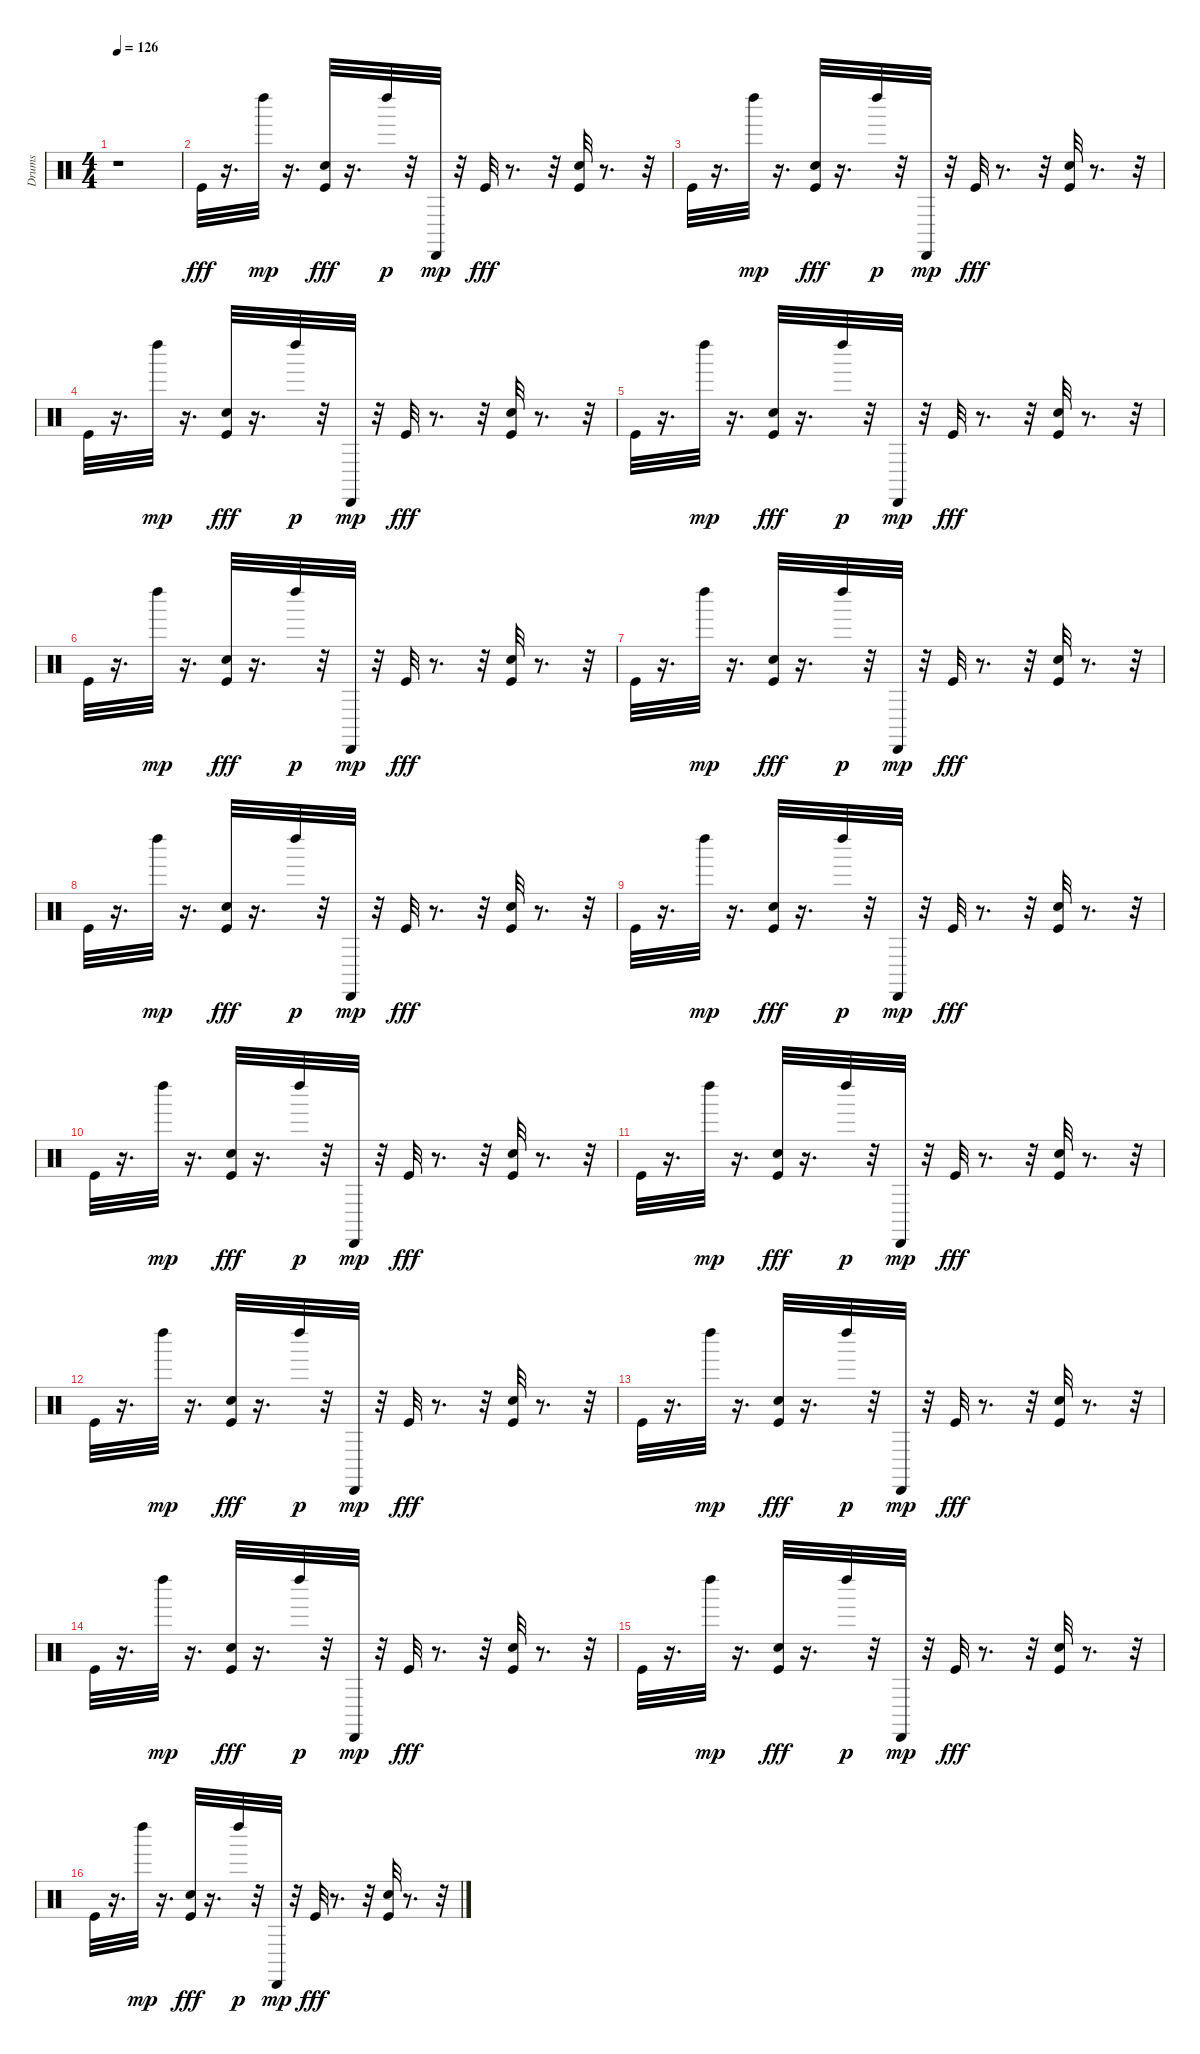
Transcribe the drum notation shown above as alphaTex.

\track ("Drums" "Drums") {instrument percussion}
\staff {score}
\articulation defaults
\ts (4 4)
\tempo 126
\clef neutral
\ks c
r.1{dy fff} |
"Kick (hit)".32 r.16{d} "Left Maraca (hit)".32{dy mp} r.16{d} ("Kick (hit)" "Hand Clap (hit)").32{dy fff} r.16{d} "Left Maraca (hit)".32{dy p} r.32 "Cabasa (hit)".32{dy mp} r.32 "Kick (hit)".32{dy fff} r.8{d} r.32 ("Kick (hit)" "Hand Clap (hit)").32 r.8{d} r.32 |
"Kick (hit)".32 r.16{d} "Left Maraca (hit)".32{dy mp} r.16{d} ("Kick (hit)" "Hand Clap (hit)").32{dy fff} r.16{d} "Left Maraca (hit)".32{dy p} r.32 "Cabasa (hit)".32{dy mp} r.32 "Kick (hit)".32{dy fff} r.8{d} r.32 ("Kick (hit)" "Hand Clap (hit)").32 r.8{d} r.32 |
"Kick (hit)".32 r.16{d} "Left Maraca (hit)".32{dy mp} r.16{d} ("Kick (hit)" "Hand Clap (hit)").32{dy fff} r.16{d} "Left Maraca (hit)".32{dy p} r.32 "Cabasa (hit)".32{dy mp} r.32 "Kick (hit)".32{dy fff} r.8{d} r.32 ("Kick (hit)" "Hand Clap (hit)").32 r.8{d} r.32 |
"Kick (hit)".32 r.16{d} "Left Maraca (hit)".32{dy mp} r.16{d} ("Kick (hit)" "Hand Clap (hit)").32{dy fff} r.16{d} "Left Maraca (hit)".32{dy p} r.32 "Cabasa (hit)".32{dy mp} r.32 "Kick (hit)".32{dy fff} r.8{d} r.32 ("Kick (hit)" "Hand Clap (hit)").32 r.8{d} r.32 |
"Kick (hit)".32 r.16{d} "Left Maraca (hit)".32{dy mp} r.16{d} ("Kick (hit)" "Hand Clap (hit)").32{dy fff} r.16{d} "Left Maraca (hit)".32{dy p} r.32 "Cabasa (hit)".32{dy mp} r.32 "Kick (hit)".32{dy fff} r.8{d} r.32 ("Kick (hit)" "Hand Clap (hit)").32 r.8{d} r.32 |
"Kick (hit)".32 r.16{d} "Left Maraca (hit)".32{dy mp} r.16{d} ("Kick (hit)" "Hand Clap (hit)").32{dy fff} r.16{d} "Left Maraca (hit)".32{dy p} r.32 "Cabasa (hit)".32{dy mp} r.32 "Kick (hit)".32{dy fff} r.8{d} r.32 ("Kick (hit)" "Hand Clap (hit)").32 r.8{d} r.32 |
"Kick (hit)".32 r.16{d} "Left Maraca (hit)".32{dy mp} r.16{d} ("Kick (hit)" "Hand Clap (hit)").32{dy fff} r.16{d} "Left Maraca (hit)".32{dy p} r.32 "Cabasa (hit)".32{dy mp} r.32 "Kick (hit)".32{dy fff} r.8{d} r.32 ("Kick (hit)" "Hand Clap (hit)").32 r.8{d} r.32 |
"Kick (hit)".32 r.16{d} "Left Maraca (hit)".32{dy mp} r.16{d} ("Kick (hit)" "Hand Clap (hit)").32{dy fff} r.16{d} "Left Maraca (hit)".32{dy p} r.32 "Cabasa (hit)".32{dy mp} r.32 "Kick (hit)".32{dy fff} r.8{d} r.32 ("Kick (hit)" "Hand Clap (hit)").32 r.8{d} r.32 |
"Kick (hit)".32 r.16{d} "Left Maraca (hit)".32{dy mp} r.16{d} ("Kick (hit)" "Hand Clap (hit)").32{dy fff} r.16{d} "Left Maraca (hit)".32{dy p} r.32 "Cabasa (hit)".32{dy mp} r.32 "Kick (hit)".32{dy fff} r.8{d} r.32 ("Kick (hit)" "Hand Clap (hit)").32 r.8{d} r.32 |
"Kick (hit)".32 r.16{d} "Left Maraca (hit)".32{dy mp} r.16{d} ("Kick (hit)" "Hand Clap (hit)").32{dy fff} r.16{d} "Left Maraca (hit)".32{dy p} r.32 "Cabasa (hit)".32{dy mp} r.32 "Kick (hit)".32{dy fff} r.8{d} r.32 ("Kick (hit)" "Hand Clap (hit)").32 r.8{d} r.32 |
"Kick (hit)".32 r.16{d} "Left Maraca (hit)".32{dy mp} r.16{d} ("Kick (hit)" "Hand Clap (hit)").32{dy fff} r.16{d} "Left Maraca (hit)".32{dy p} r.32 "Cabasa (hit)".32{dy mp} r.32 "Kick (hit)".32{dy fff} r.8{d} r.32 ("Kick (hit)" "Hand Clap (hit)").32 r.8{d} r.32 |
"Kick (hit)".32 r.16{d} "Left Maraca (hit)".32{dy mp} r.16{d} ("Kick (hit)" "Hand Clap (hit)").32{dy fff} r.16{d} "Left Maraca (hit)".32{dy p} r.32 "Cabasa (hit)".32{dy mp} r.32 "Kick (hit)".32{dy fff} r.8{d} r.32 ("Kick (hit)" "Hand Clap (hit)").32 r.8{d} r.32 |
"Kick (hit)".32 r.16{d} "Left Maraca (hit)".32{dy mp} r.16{d} ("Kick (hit)" "Hand Clap (hit)").32{dy fff} r.16{d} "Left Maraca (hit)".32{dy p} r.32 "Cabasa (hit)".32{dy mp} r.32 "Kick (hit)".32{dy fff} r.8{d} r.32 ("Kick (hit)" "Hand Clap (hit)").32 r.8{d} r.32 |
"Kick (hit)".32 r.16{d} "Left Maraca (hit)".32{dy mp} r.16{d} ("Kick (hit)" "Hand Clap (hit)").32{dy fff} r.16{d} "Left Maraca (hit)".32{dy p} r.32 "Cabasa (hit)".32{dy mp} r.32 "Kick (hit)".32{dy fff} r.8{d} r.32 ("Kick (hit)" "Hand Clap (hit)").32 r.8{d} r.32 |
"Kick (hit)".32 r.16{d} "Left Maraca (hit)".32{dy mp} r.16{d} ("Kick (hit)" "Hand Clap (hit)").32{dy fff} r.16{d} "Left Maraca (hit)".32{dy p} r.32 "Cabasa (hit)".32{dy mp} r.32 "Kick (hit)".32{dy fff} r.8{d} r.32 ("Kick (hit)" "Hand Clap (hit)").32 r.8{d} r.32
